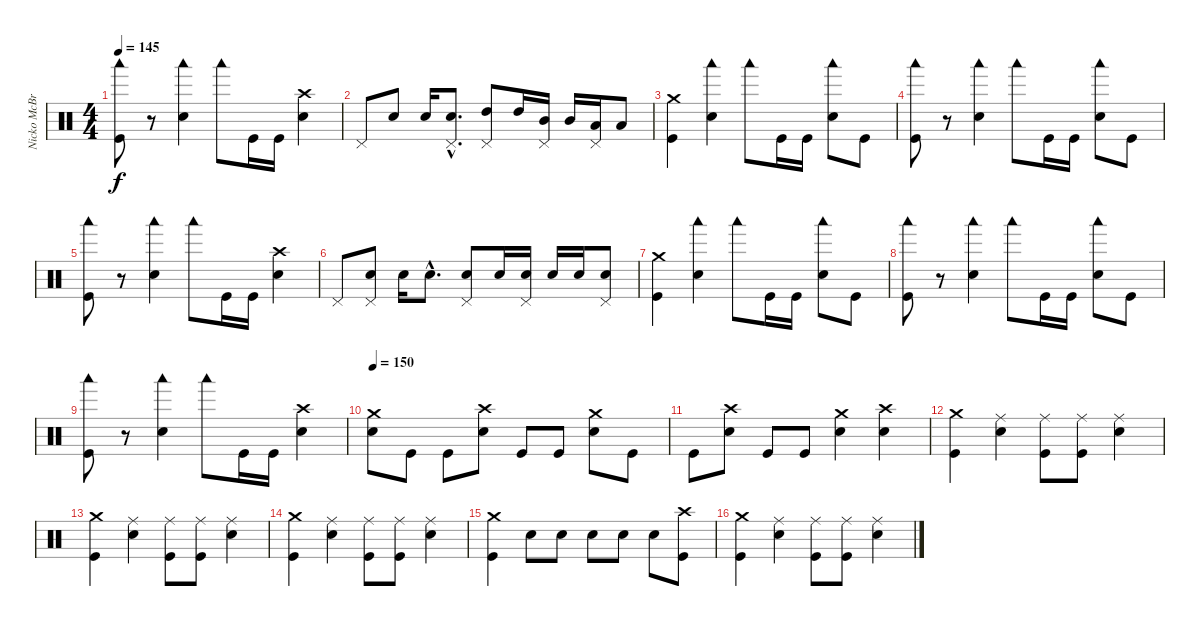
\track ("Nicko McBrain" "Nicko McBr") {instrument percussion}
\staff {score}
\articulation defaults
\ts (4 4)
\tempo 145
\clef neutral
\ks c
("Woodblock low (hit)" "Kick (hit)").8{dy f} r.8 ("Woodblock low (hit)" "Electric Snare (hit)").4 "Woodblock low (hit)".8 "Kick (hit)".16 "Kick (hit)".16 ("Crash high (hit)" "Electric Snare (hit)").4 |
"Pedal Hi-Hat (hit)".8 "Electric Snare (hit)".8 "Electric Snare (hit)".16 ("Pedal Hi-Hat (hit)"{hac} "Electric Snare (hit)"{hac}).8{d} ("Pedal Hi-Hat (hit)" "High Tom (hit)").8 "High Tom (hit)".16 ("Pedal Hi-Hat (hit)" "Mid Tom (hit)").16 "Mid Tom (hit)".16 ("Pedal Hi-Hat (hit)" "Low Tom (hit)").16 "Low Tom (hit)".8 |
("Crash medium (hit)" "Kick (hit)").4 ("Woodblock low (hit)" "Electric Snare (hit)").4 "Woodblock low (hit)".8 "Kick (hit)".16 "Kick (hit)".16 ("Woodblock low (hit)" "Electric Snare (hit)").8 "Kick (hit)".8 |
("Woodblock low (hit)" "Kick (hit)").8 r.8 ("Woodblock low (hit)" "Electric Snare (hit)").4 "Woodblock low (hit)".8 "Kick (hit)".16 "Kick (hit)".16 ("Woodblock low (hit)" "Electric Snare (hit)").8 "Kick (hit)".8 |
("Woodblock low (hit)" "Kick (hit)").8 r.8 ("Woodblock low (hit)" "Electric Snare (hit)").4 "Woodblock low (hit)".8 "Kick (hit)".16 "Kick (hit)".16 ("Crash high (hit)" "Electric Snare (hit)").4 |
"Pedal Hi-Hat (hit)".8 ("Pedal Hi-Hat (hit)" "Electric Snare (hit)").8 "Electric Snare (hit)".16 "Electric Snare (hit)"{hac}.8{d} ("Pedal Hi-Hat (hit)" "Electric Snare (hit)").8 "Electric Snare (hit)".16 ("Pedal Hi-Hat (hit)" "Electric Snare (hit)").16 "Electric Snare (hit)".16 "Electric Snare (hit)".16 ("Pedal Hi-Hat (hit)" "Electric Snare (hit)").8 |
("Crash medium (hit)" "Kick (hit)").4 ("Woodblock low (hit)" "Electric Snare (hit)").4 "Woodblock low (hit)".8 "Kick (hit)".16 "Kick (hit)".16 ("Woodblock low (hit)" "Electric Snare (hit)").8 "Kick (hit)".8 |
("Woodblock low (hit)" "Kick (hit)").8 r.8 ("Woodblock low (hit)" "Electric Snare (hit)").4 "Woodblock low (hit)".8 "Kick (hit)".16 "Kick (hit)".16 ("Woodblock low (hit)" "Electric Snare (hit)").8 "Kick (hit)".8 |
("Woodblock low (hit)" "Kick (hit)").8 r.8 ("Woodblock low (hit)" "Electric Snare (hit)").4 "Woodblock low (hit)".8 "Kick (hit)".16 "Kick (hit)".16 ("Crash high (hit)" "Electric Snare (hit)").4 |
\tempo 150
("Crash medium (hit)" "Electric Snare (hit)").8 "Kick (hit)".8 "Kick (hit)".8 ("Crash high (hit)" "Electric Snare (hit)").8 "Kick (hit)".8 "Kick (hit)".8 ("Crash medium (hit)" "Electric Snare (hit)").8 "Kick (hit)".8 |
"Kick (hit)".8 ("Crash high (hit)" "Electric Snare (hit)").8 "Kick (hit)".8 "Kick (hit)".8 ("Crash medium (hit)" "Electric Snare (hit)").4 ("Crash high (hit)" "Electric Snare (hit)").4 |
("Kick (hit)" "Crash medium (hit)").4 ("Electric Snare (hit)" "Ride (middle)").4 ("Kick (hit)" "Ride (middle)").8 ("Kick (hit)" "Ride (middle)").8 ("Electric Snare (hit)" "Ride (middle)").4 |
("Kick (hit)" "Crash medium (hit)").4 ("Electric Snare (hit)" "Ride (middle)").4 ("Kick (hit)" "Ride (middle)").8 ("Kick (hit)" "Ride (middle)").8 ("Electric Snare (hit)" "Ride (middle)").4 |
("Kick (hit)" "Crash medium (hit)").4 ("Electric Snare (hit)" "Ride (middle)").4 ("Kick (hit)" "Ride (middle)").8 ("Kick (hit)" "Ride (middle)").8 ("Electric Snare (hit)" "Ride (middle)").4 |
("Kick (hit)" "Crash medium (hit)").4 "Electric Snare (hit)".8 "Electric Snare (hit)".8 "Electric Snare (hit)".8 "Electric Snare (hit)".8 "Electric Snare (hit)".8 ("Kick (hit)" "Crash high (hit)").8 |
("Kick (hit)" "Crash medium (hit)").4 ("Electric Snare (hit)" "Ride (middle)").4 ("Kick (hit)" "Ride (middle)").8 ("Kick (hit)" "Ride (middle)").8 ("Electric Snare (hit)" "Ride (middle)").4
